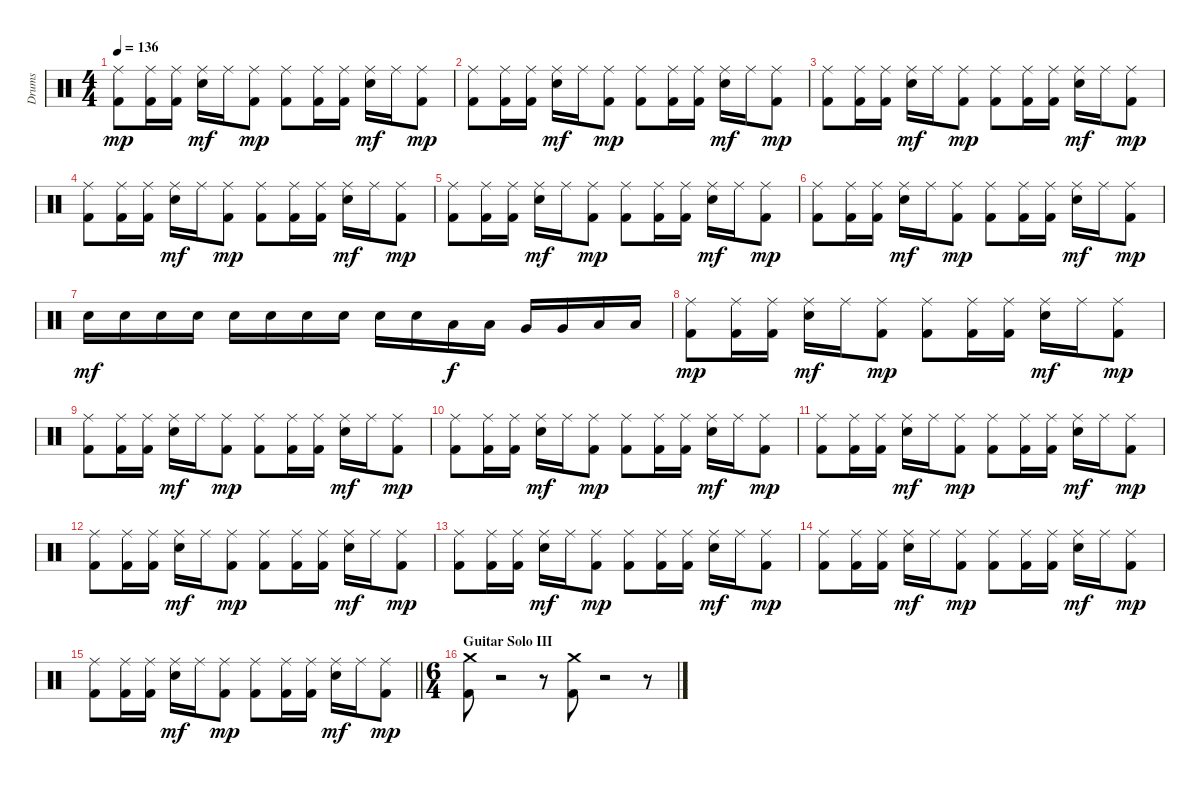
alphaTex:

\track ("Drums" "Drums") {instrument percussion}
\staff {score}
\articulation defaults
\ts (4 4)
\tempo 136
\clef neutral
\ks c
("Ride (middle)" "Kick (hit) 2").8{dy mp} ("Ride (middle)" "Kick (hit) 2").16 ("Ride (middle)" "Kick (hit) 2").16 ("Ride (middle)" "Electric Snare (hit)").16{dy mf} "Ride (middle)".16 ("Ride (middle)" "Kick (hit) 2").8{dy mp} ("Ride (middle)" "Kick (hit) 2").8 ("Ride (middle)" "Kick (hit) 2").16 ("Ride (middle)" "Kick (hit) 2").16 ("Ride (middle)" "Electric Snare (hit)").16{dy mf} "Ride (middle)".16 ("Ride (middle)" "Kick (hit) 2").8{dy mp} |
("Ride (middle)" "Kick (hit) 2").8 ("Ride (middle)" "Kick (hit) 2").16 ("Ride (middle)" "Kick (hit) 2").16 ("Ride (middle)" "Electric Snare (hit)").16{dy mf} "Ride (middle)".16 ("Ride (middle)" "Kick (hit) 2").8{dy mp} ("Ride (middle)" "Kick (hit) 2").8 ("Ride (middle)" "Kick (hit) 2").16 ("Ride (middle)" "Kick (hit) 2").16 ("Ride (middle)" "Electric Snare (hit)").16{dy mf} "Ride (middle)".16 ("Ride (middle)" "Kick (hit) 2").8{dy mp} |
("Ride (middle)" "Kick (hit) 2").8 ("Ride (middle)" "Kick (hit) 2").16 ("Ride (middle)" "Kick (hit) 2").16 ("Ride (middle)" "Electric Snare (hit)").16{dy mf} "Ride (middle)".16 ("Ride (middle)" "Kick (hit) 2").8{dy mp} ("Ride (middle)" "Kick (hit) 2").8 ("Ride (middle)" "Kick (hit) 2").16 ("Ride (middle)" "Kick (hit) 2").16 ("Ride (middle)" "Electric Snare (hit)").16{dy mf} "Ride (middle)".16 ("Ride (middle)" "Kick (hit) 2").8{dy mp} |
("Ride (middle)" "Kick (hit) 2").8 ("Ride (middle)" "Kick (hit) 2").16 ("Ride (middle)" "Kick (hit) 2").16 ("Ride (middle)" "Electric Snare (hit)").16{dy mf} "Ride (middle)".16 ("Ride (middle)" "Kick (hit) 2").8{dy mp} ("Ride (middle)" "Kick (hit) 2").8 ("Ride (middle)" "Kick (hit) 2").16 ("Ride (middle)" "Kick (hit) 2").16 ("Ride (middle)" "Electric Snare (hit)").16{dy mf} "Ride (middle)".16 ("Ride (middle)" "Kick (hit) 2").8{dy mp} |
("Ride (middle)" "Kick (hit) 2").8 ("Ride (middle)" "Kick (hit) 2").16 ("Ride (middle)" "Kick (hit) 2").16 ("Ride (middle)" "Electric Snare (hit)").16{dy mf} "Ride (middle)".16 ("Ride (middle)" "Kick (hit) 2").8{dy mp} ("Ride (middle)" "Kick (hit) 2").8 ("Ride (middle)" "Kick (hit) 2").16 ("Ride (middle)" "Kick (hit) 2").16 ("Ride (middle)" "Electric Snare (hit)").16{dy mf} "Ride (middle)".16 ("Ride (middle)" "Kick (hit) 2").8{dy mp} |
("Ride (middle)" "Kick (hit) 2").8 ("Ride (middle)" "Kick (hit) 2").16 ("Ride (middle)" "Kick (hit) 2").16 ("Ride (middle)" "Electric Snare (hit)").16{dy mf} "Ride (middle)".16 ("Ride (middle)" "Kick (hit) 2").8{dy mp} ("Ride (middle)" "Kick (hit) 2").8 ("Ride (middle)" "Kick (hit) 2").16 ("Ride (middle)" "Kick (hit) 2").16 ("Ride (middle)" "Electric Snare (hit)").16{dy mf} "Ride (middle)".16 ("Ride (middle)" "Kick (hit) 2").8{dy mp} |
"Electric Snare (hit)".16{dy mf} "Electric Snare (hit)".16 "Electric Snare (hit)".16 "Electric Snare (hit)".16 "Electric Snare (hit)".16 "Electric Snare (hit)".16 "Electric Snare (hit)".16 "Electric Snare (hit)".16 "Electric Snare (hit)".16 "Electric Snare (hit)".16 "Low Tom (hit)".16{dy f} "Low Tom (hit)".16 "Very Low Tom (hit)".16 "Very Low Tom (hit)".16 "Low Floor Tom (hit)".16 "Low Floor Tom (hit)".16 |
("Ride (middle)" "Kick (hit) 2").8{dy mp} ("Ride (middle)" "Kick (hit) 2").16 ("Ride (middle)" "Kick (hit) 2").16 ("Ride (middle)" "Electric Snare (hit)").16{dy mf} "Ride (middle)".16 ("Ride (middle)" "Kick (hit) 2").8{dy mp} ("Ride (middle)" "Kick (hit) 2").8 ("Ride (middle)" "Kick (hit) 2").16 ("Ride (middle)" "Kick (hit) 2").16 ("Ride (middle)" "Electric Snare (hit)").16{dy mf} "Ride (middle)".16 ("Ride (middle)" "Kick (hit) 2").8{dy mp} |
("Ride (middle)" "Kick (hit) 2").8 ("Ride (middle)" "Kick (hit) 2").16 ("Ride (middle)" "Kick (hit) 2").16 ("Ride (middle)" "Electric Snare (hit)").16{dy mf} "Ride (middle)".16 ("Ride (middle)" "Kick (hit) 2").8{dy mp} ("Ride (middle)" "Kick (hit) 2").8 ("Ride (middle)" "Kick (hit) 2").16 ("Ride (middle)" "Kick (hit) 2").16 ("Ride (middle)" "Electric Snare (hit)").16{dy mf} "Ride (middle)".16 ("Ride (middle)" "Kick (hit) 2").8{dy mp} |
("Ride (middle)" "Kick (hit) 2").8 ("Ride (middle)" "Kick (hit) 2").16 ("Ride (middle)" "Kick (hit) 2").16 ("Ride (middle)" "Electric Snare (hit)").16{dy mf} "Ride (middle)".16 ("Ride (middle)" "Kick (hit) 2").8{dy mp} ("Ride (middle)" "Kick (hit) 2").8 ("Ride (middle)" "Kick (hit) 2").16 ("Ride (middle)" "Kick (hit) 2").16 ("Ride (middle)" "Electric Snare (hit)").16{dy mf} "Ride (middle)".16 ("Ride (middle)" "Kick (hit) 2").8{dy mp} |
("Ride (middle)" "Kick (hit) 2").8 ("Ride (middle)" "Kick (hit) 2").16 ("Ride (middle)" "Kick (hit) 2").16 ("Ride (middle)" "Electric Snare (hit)").16{dy mf} "Ride (middle)".16 ("Ride (middle)" "Kick (hit) 2").8{dy mp} ("Ride (middle)" "Kick (hit) 2").8 ("Ride (middle)" "Kick (hit) 2").16 ("Ride (middle)" "Kick (hit) 2").16 ("Ride (middle)" "Electric Snare (hit)").16{dy mf} "Ride (middle)".16 ("Ride (middle)" "Kick (hit) 2").8{dy mp} |
("Ride (middle)" "Kick (hit) 2").8 ("Ride (middle)" "Kick (hit) 2").16 ("Ride (middle)" "Kick (hit) 2").16 ("Ride (middle)" "Electric Snare (hit)").16{dy mf} "Ride (middle)".16 ("Ride (middle)" "Kick (hit) 2").8{dy mp} ("Ride (middle)" "Kick (hit) 2").8 ("Ride (middle)" "Kick (hit) 2").16 ("Ride (middle)" "Kick (hit) 2").16 ("Ride (middle)" "Electric Snare (hit)").16{dy mf} "Ride (middle)".16 ("Ride (middle)" "Kick (hit) 2").8{dy mp} |
("Ride (middle)" "Kick (hit) 2").8 ("Ride (middle)" "Kick (hit) 2").16 ("Ride (middle)" "Kick (hit) 2").16 ("Ride (middle)" "Electric Snare (hit)").16{dy mf} "Ride (middle)".16 ("Ride (middle)" "Kick (hit) 2").8{dy mp} ("Ride (middle)" "Kick (hit) 2").8 ("Ride (middle)" "Kick (hit) 2").16 ("Ride (middle)" "Kick (hit) 2").16 ("Ride (middle)" "Electric Snare (hit)").16{dy mf} "Ride (middle)".16 ("Ride (middle)" "Kick (hit) 2").8{dy mp} |
("Ride (middle)" "Kick (hit) 2").8 ("Ride (middle)" "Kick (hit) 2").16 ("Ride (middle)" "Kick (hit) 2").16 ("Ride (middle)" "Electric Snare (hit)").16{dy mf} "Ride (middle)".16 ("Ride (middle)" "Kick (hit) 2").8{dy mp} ("Ride (middle)" "Kick (hit) 2").8 ("Ride (middle)" "Kick (hit) 2").16 ("Ride (middle)" "Kick (hit) 2").16 ("Ride (middle)" "Electric Snare (hit)").16{dy mf} "Ride (middle)".16 ("Ride (middle)" "Kick (hit) 2").8{dy mp} |
\barLineRight lightlight
("Ride (middle)" "Kick (hit) 2").8 ("Ride (middle)" "Kick (hit) 2").16 ("Ride (middle)" "Kick (hit) 2").16 ("Ride (middle)" "Electric Snare (hit)").16{dy mf} "Ride (middle)".16 ("Ride (middle)" "Kick (hit) 2").8{dy mp} ("Ride (middle)" "Kick (hit) 2").8 ("Ride (middle)" "Kick (hit) 2").16 ("Ride (middle)" "Kick (hit) 2").16 ("Ride (middle)" "Electric Snare (hit)").16{dy mf} "Ride (middle)".16 ("Ride (middle)" "Kick (hit) 2").8{dy mp} |
\ts (6 4)
\section ("" "Guitar Solo III")
("Crash medium (hit)" "Kick (hit) 2").8 r.2 r.8 ("Crash medium (hit)" "Kick (hit) 2").8 r.2 r.8
